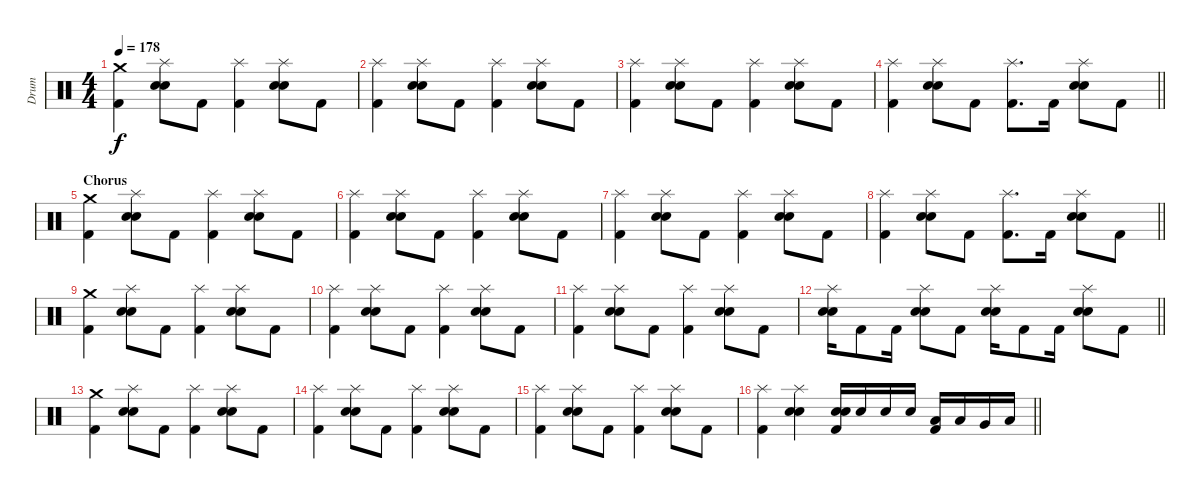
\track ("Drum" "Drum") {instrument percussion}
\staff {score}
\articulation defaults
\ts (4 4)
\tempo 178
\clef neutral
\ks c
("Crash medium (hit)" "Kick (hit) 2").4{dy f} ("Splash (hit)" "Electric Snare (hit)" "Snare (hit) 2").8 "Kick (hit) 2".8 ("Splash (hit)" "Kick (hit) 2").4 ("Splash (hit)" "Electric Snare (hit)" "Snare (hit) 2").8 "Kick (hit) 2".8 |
("Splash (hit)" "Kick (hit) 2").4 ("Splash (hit)" "Electric Snare (hit)" "Snare (hit) 2").8 "Kick (hit) 2".8 ("Splash (hit)" "Kick (hit) 2").4 ("Splash (hit)" "Electric Snare (hit)" "Snare (hit) 2").8 "Kick (hit) 2".8 |
("Splash (hit)" "Kick (hit) 2").4 ("Splash (hit)" "Electric Snare (hit)" "Snare (hit) 2").8 "Kick (hit) 2".8 ("Splash (hit)" "Kick (hit) 2").4 ("Splash (hit)" "Electric Snare (hit)" "Snare (hit) 2").8 "Kick (hit) 2".8 |
\barLineRight lightlight
("Splash (hit)" "Kick (hit) 2").4 ("Splash (hit)" "Electric Snare (hit)" "Snare (hit) 2").8 "Kick (hit) 2".8 ("Splash (hit)" "Kick (hit) 2").8{d} "Kick (hit) 2".16 ("Splash (hit)" "Electric Snare (hit)" "Snare (hit) 2").8 "Kick (hit) 2".8 |
\section ("" "Chorus")
("Crash medium (hit)" "Kick (hit) 2").4 ("Splash (hit)" "Electric Snare (hit)" "Snare (hit) 2").8 "Kick (hit) 2".8 ("Splash (hit)" "Kick (hit) 2").4 ("Splash (hit)" "Electric Snare (hit)" "Snare (hit) 2").8 "Kick (hit) 2".8 |
("Splash (hit)" "Kick (hit) 2").4 ("Splash (hit)" "Electric Snare (hit)" "Snare (hit) 2").8 "Kick (hit) 2".8 ("Splash (hit)" "Kick (hit) 2").4 ("Splash (hit)" "Electric Snare (hit)" "Snare (hit) 2").8 "Kick (hit) 2".8 |
("Splash (hit)" "Kick (hit) 2").4 ("Splash (hit)" "Electric Snare (hit)" "Snare (hit) 2").8 "Kick (hit) 2".8 ("Splash (hit)" "Kick (hit) 2").4 ("Splash (hit)" "Electric Snare (hit)" "Snare (hit) 2").8 "Kick (hit) 2".8 |
\barLineRight lightlight
("Splash (hit)" "Kick (hit) 2").4 ("Splash (hit)" "Electric Snare (hit)" "Snare (hit) 2").8 "Kick (hit) 2".8 ("Splash (hit)" "Kick (hit) 2").8{d} "Kick (hit) 2".16 ("Splash (hit)" "Electric Snare (hit)" "Snare (hit) 2").8 "Kick (hit) 2".8 |
("Crash medium (hit)" "Kick (hit) 2").4 ("Splash (hit)" "Electric Snare (hit)" "Snare (hit) 2").8 "Kick (hit) 2".8 ("Splash (hit)" "Kick (hit) 2").4 ("Splash (hit)" "Electric Snare (hit)" "Snare (hit) 2").8 "Kick (hit) 2".8 |
("Splash (hit)" "Kick (hit) 2").4 ("Splash (hit)" "Electric Snare (hit)" "Snare (hit) 2").8 "Kick (hit) 2".8 ("Splash (hit)" "Kick (hit) 2").4 ("Splash (hit)" "Electric Snare (hit)" "Snare (hit) 2").8 "Kick (hit) 2".8 |
("Splash (hit)" "Kick (hit) 2").4 ("Splash (hit)" "Electric Snare (hit)" "Snare (hit) 2").8 "Kick (hit) 2".8 ("Splash (hit)" "Kick (hit) 2").4 ("Splash (hit)" "Electric Snare (hit)" "Snare (hit) 2").8 "Kick (hit) 2".8 |
\barLineRight lightlight
("Splash (hit)" "Electric Snare (hit)" "Snare (hit) 2").16 "Kick (hit) 2".8 "Kick (hit) 2".16 ("Splash (hit)" "Electric Snare (hit)" "Snare (hit) 2").8 "Kick (hit) 2".8 ("Splash (hit)" "Electric Snare (hit)" "Snare (hit) 2").16 "Kick (hit) 2".8 "Kick (hit) 2".16 ("Splash (hit)" "Electric Snare (hit)" "Snare (hit) 2").8 "Kick (hit) 2".8 |
("Crash medium (hit)" "Kick (hit) 2").4 ("Splash (hit)" "Electric Snare (hit)" "Snare (hit) 2").8 "Kick (hit) 2".8 ("Splash (hit)" "Kick (hit) 2").4 ("Splash (hit)" "Electric Snare (hit)" "Snare (hit) 2").8 "Kick (hit) 2".8 |
("Splash (hit)" "Kick (hit) 2").4 ("Splash (hit)" "Electric Snare (hit)" "Snare (hit) 2").8 "Kick (hit) 2".8 ("Splash (hit)" "Kick (hit) 2").4 ("Splash (hit)" "Electric Snare (hit)" "Snare (hit) 2").8 "Kick (hit) 2".8 |
("Splash (hit)" "Kick (hit) 2").4 ("Splash (hit)" "Electric Snare (hit)" "Snare (hit) 2").8 "Kick (hit) 2".8 ("Splash (hit)" "Kick (hit) 2").4 ("Splash (hit)" "Electric Snare (hit)" "Snare (hit) 2").8 "Kick (hit) 2".8 |
\barLineRight lightlight
("Splash (hit)" "Kick (hit) 2").4 ("Splash (hit)" "Electric Snare (hit)" "Snare (hit) 2").4 ("Electric Snare (hit)" "Snare (hit) 2" "Kick (hit) 2").16 "Electric Snare (hit)".16 "Electric Snare (hit)".16 "Electric Snare (hit)".16 ("Low Tom (hit)" "Kick (hit) 2").16 "Low Tom (hit)".16 "Very Low Tom (hit)".16 "Low Floor Tom (hit)".16
